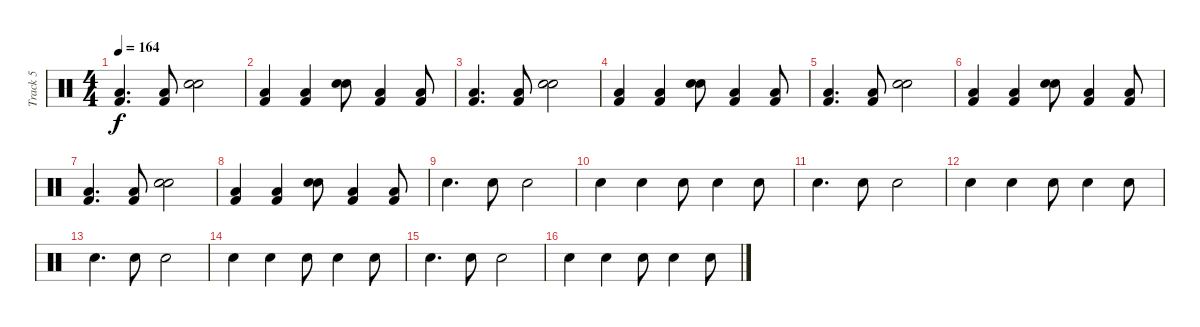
\track ("Track 5" "Track 5") {instrument percussion}
\staff {score}
\articulation defaults
\ts (4 4)
\tempo 164
\clef neutral
\ks c
("Low Floor Tom (hit)" "Kick (hit) 2").4{d dy f} ("Low Floor Tom (hit)" "Kick (hit) 2").8 ("Hand Clap (hit)" "Electric Snare (hit)").2 |
("Low Floor Tom (hit)" "Kick (hit) 2").4 ("Low Floor Tom (hit)" "Kick (hit) 2").4 ("Hand Clap (hit)" "Electric Snare (hit)").8 ("Low Floor Tom (hit)" "Kick (hit) 2").4 ("Low Floor Tom (hit)" "Kick (hit) 2").8 |
("Low Floor Tom (hit)" "Kick (hit) 2").4{d} ("Low Floor Tom (hit)" "Kick (hit) 2").8 ("Hand Clap (hit)" "Electric Snare (hit)").2 |
("Low Floor Tom (hit)" "Kick (hit) 2").4 ("Low Floor Tom (hit)" "Kick (hit) 2").4 ("Hand Clap (hit)" "Electric Snare (hit)").8 ("Low Floor Tom (hit)" "Kick (hit) 2").4 ("Low Floor Tom (hit)" "Kick (hit) 2").8 |
("Low Floor Tom (hit)" "Kick (hit) 2").4{d} ("Low Floor Tom (hit)" "Kick (hit) 2").8 ("Hand Clap (hit)" "Electric Snare (hit)").2 |
("Low Floor Tom (hit)" "Kick (hit) 2").4 ("Low Floor Tom (hit)" "Kick (hit) 2").4 ("Hand Clap (hit)" "Electric Snare (hit)").8 ("Low Floor Tom (hit)" "Kick (hit) 2").4 ("Low Floor Tom (hit)" "Kick (hit) 2").8 |
("Low Floor Tom (hit)" "Kick (hit) 2").4{d} ("Low Floor Tom (hit)" "Kick (hit) 2").8 ("Hand Clap (hit)" "Electric Snare (hit)").2 |
("Low Floor Tom (hit)" "Kick (hit) 2").4 ("Low Floor Tom (hit)" "Kick (hit) 2").4 ("Hand Clap (hit)" "Electric Snare (hit)").8 ("Low Floor Tom (hit)" "Kick (hit) 2").4 ("Low Floor Tom (hit)" "Kick (hit) 2").8 |
"Electric Snare (hit)".4{d} "Electric Snare (hit)".8 "Hand Clap (hit)".2 |
"Electric Snare (hit)".4 "Electric Snare (hit)".4 "Hand Clap (hit)".8 "Electric Snare (hit)".4 "Electric Snare (hit)".8 |
"Electric Snare (hit)".4{d} "Electric Snare (hit)".8 "Hand Clap (hit)".2 |
"Electric Snare (hit)".4 "Electric Snare (hit)".4 "Hand Clap (hit)".8 "Electric Snare (hit)".4 "Electric Snare (hit)".8 |
"Electric Snare (hit)".4{d} "Electric Snare (hit)".8 "Hand Clap (hit)".2 |
"Electric Snare (hit)".4 "Electric Snare (hit)".4 "Hand Clap (hit)".8 "Electric Snare (hit)".4 "Electric Snare (hit)".8 |
"Electric Snare (hit)".4{d} "Electric Snare (hit)".8 "Hand Clap (hit)".2 |
"Electric Snare (hit)".4 "Electric Snare (hit)".4 "Hand Clap (hit)".8 "Electric Snare (hit)".4 "Electric Snare (hit)".8
